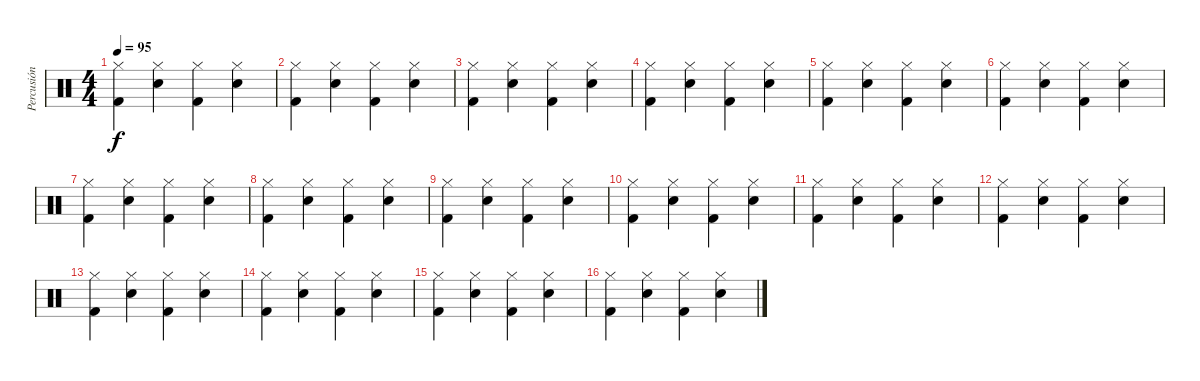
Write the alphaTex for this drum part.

\track ("Percusión" "Percusión") {instrument percussion}
\staff {score}
\articulation defaults
\ts (4 4)
\tempo 95
\clef neutral
\ks c
("Hi-Hat (closed)" "Kick (hit) 2").4{dy f} ("Hi-Hat (closed)" "Snare (hit) 2").4 ("Hi-Hat (closed)" "Kick (hit) 2").4 ("Hi-Hat (closed)" "Snare (hit) 2").4 |
("Hi-Hat (closed)" "Kick (hit) 2").4 ("Hi-Hat (closed)" "Snare (hit) 2").4 ("Hi-Hat (closed)" "Kick (hit) 2").4 ("Hi-Hat (closed)" "Snare (hit) 2").4 |
("Hi-Hat (closed)" "Kick (hit) 2").4 ("Hi-Hat (closed)" "Snare (hit) 2").4 ("Hi-Hat (closed)" "Kick (hit) 2").4 ("Hi-Hat (closed)" "Snare (hit) 2").4 |
("Hi-Hat (closed)" "Kick (hit) 2").4 ("Hi-Hat (closed)" "Snare (hit) 2").4 ("Hi-Hat (closed)" "Kick (hit) 2").4 ("Hi-Hat (closed)" "Snare (hit) 2").4 |
("Hi-Hat (closed)" "Kick (hit) 2").4 ("Hi-Hat (closed)" "Snare (hit) 2").4 ("Hi-Hat (closed)" "Kick (hit) 2").4 ("Hi-Hat (closed)" "Snare (hit) 2").4 |
("Hi-Hat (closed)" "Kick (hit) 2").4 ("Hi-Hat (closed)" "Snare (hit) 2").4 ("Hi-Hat (closed)" "Kick (hit) 2").4 ("Hi-Hat (closed)" "Snare (hit) 2").4 |
("Hi-Hat (closed)" "Kick (hit) 2").4 ("Hi-Hat (closed)" "Snare (hit) 2").4 ("Hi-Hat (closed)" "Kick (hit) 2").4 ("Hi-Hat (closed)" "Snare (hit) 2").4 |
("Hi-Hat (closed)" "Kick (hit) 2").4 ("Hi-Hat (closed)" "Snare (hit) 2").4 ("Hi-Hat (closed)" "Kick (hit) 2").4 ("Hi-Hat (closed)" "Snare (hit) 2").4 |
("Hi-Hat (closed)" "Kick (hit) 2").4 ("Hi-Hat (closed)" "Snare (hit) 2").4 ("Hi-Hat (closed)" "Kick (hit) 2").4 ("Hi-Hat (closed)" "Snare (hit) 2").4 |
("Hi-Hat (closed)" "Kick (hit) 2").4 ("Hi-Hat (closed)" "Snare (hit) 2").4 ("Hi-Hat (closed)" "Kick (hit) 2").4 ("Hi-Hat (closed)" "Snare (hit) 2").4 |
("Hi-Hat (closed)" "Kick (hit) 2").4 ("Hi-Hat (closed)" "Snare (hit) 2").4 ("Hi-Hat (closed)" "Kick (hit) 2").4 ("Hi-Hat (closed)" "Snare (hit) 2").4 |
("Hi-Hat (closed)" "Kick (hit) 2").4 ("Hi-Hat (closed)" "Snare (hit) 2").4 ("Hi-Hat (closed)" "Kick (hit) 2").4 ("Hi-Hat (closed)" "Snare (hit) 2").4 |
("Hi-Hat (closed)" "Kick (hit) 2").4 ("Hi-Hat (closed)" "Snare (hit) 2").4 ("Hi-Hat (closed)" "Kick (hit) 2").4 ("Hi-Hat (closed)" "Snare (hit) 2").4 |
("Hi-Hat (closed)" "Kick (hit) 2").4 ("Hi-Hat (closed)" "Snare (hit) 2").4 ("Hi-Hat (closed)" "Kick (hit) 2").4 ("Hi-Hat (closed)" "Snare (hit) 2").4 |
("Hi-Hat (closed)" "Kick (hit) 2").4 ("Hi-Hat (closed)" "Snare (hit) 2").4 ("Hi-Hat (closed)" "Kick (hit) 2").4 ("Hi-Hat (closed)" "Snare (hit) 2").4 |
("Hi-Hat (closed)" "Kick (hit) 2").4 ("Hi-Hat (closed)" "Snare (hit) 2").4 ("Hi-Hat (closed)" "Kick (hit) 2").4 ("Hi-Hat (closed)" "Snare (hit) 2").4
